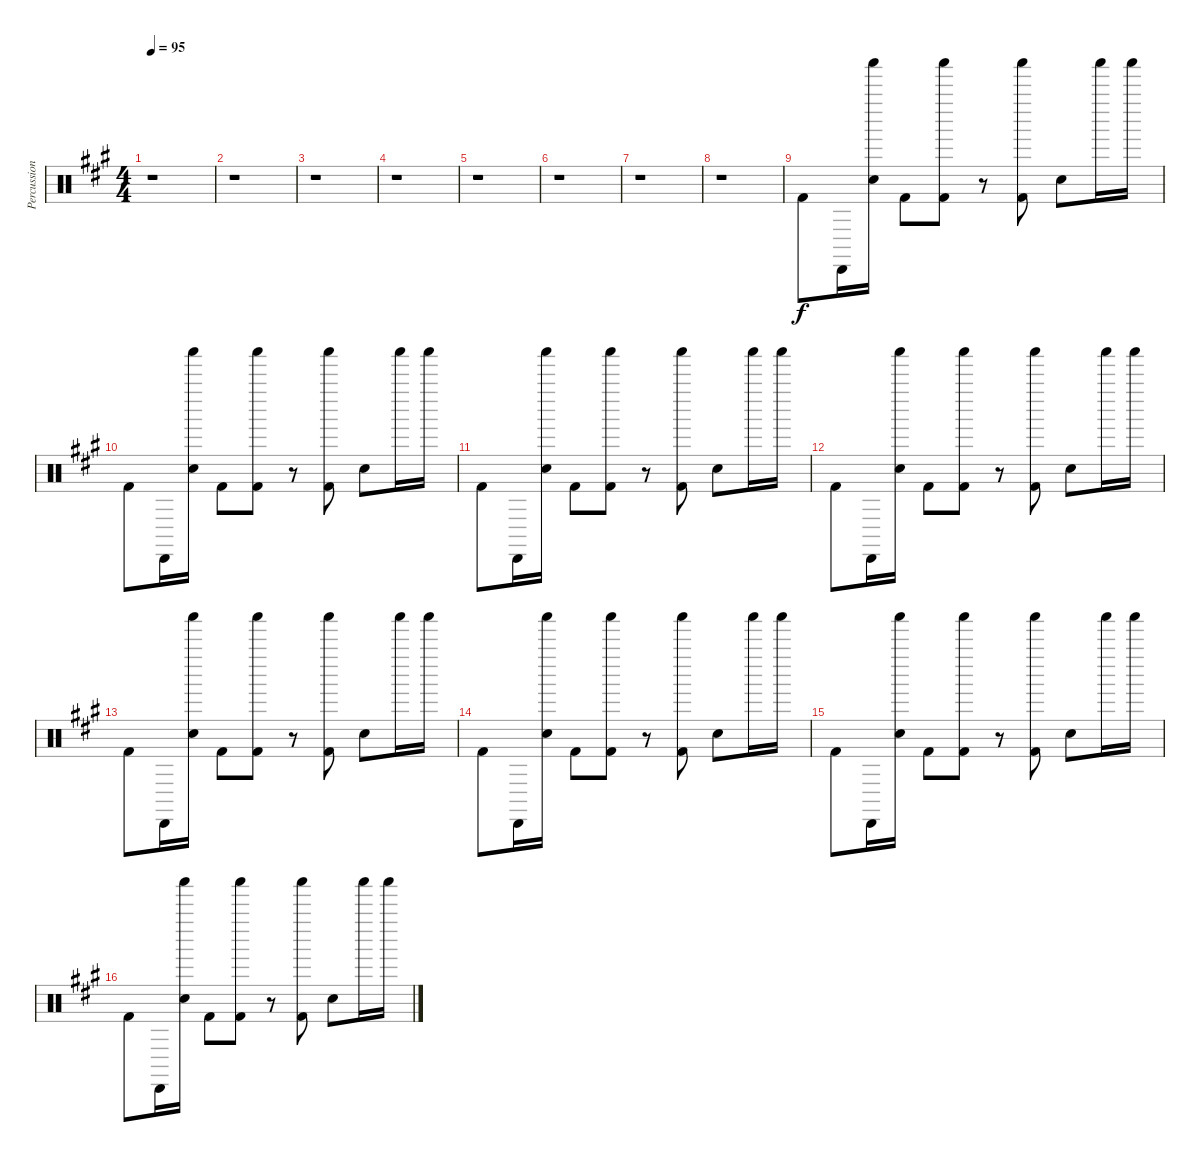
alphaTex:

\track ("Percussions" "Percussion") {instrument percussion}
\staff {score}
\articulation defaults
\ts (4 4)
\tempo 95
\clef neutral
\ks a
r.1{dy f} |
r.1 |
r.1 |
r.1 |
r.1 |
r.1 |
r.1 |
r.1 |
"Kick (hit) 2".8 "Cabasa (hit)".16 ("Hand Clap (hit)" "Shaker (hit)").16 "Kick (hit) 2".8 ("Kick (hit) 2" "Shaker (hit)").8 r.8 ("Kick (hit) 2" "Shaker (hit)").8 "Hand Clap (hit)".8 "Shaker (hit)".16 "Shaker (hit)".16 |
"Kick (hit) 2".8 "Cabasa (hit)".16 ("Hand Clap (hit)" "Shaker (hit)").16 "Kick (hit) 2".8 ("Kick (hit) 2" "Shaker (hit)").8 r.8 ("Kick (hit) 2" "Shaker (hit)").8 "Hand Clap (hit)".8 "Shaker (hit)".16 "Shaker (hit)".16 |
"Kick (hit) 2".8 "Cabasa (hit)".16 ("Hand Clap (hit)" "Shaker (hit)").16 "Kick (hit) 2".8 ("Kick (hit) 2" "Shaker (hit)").8 r.8 ("Kick (hit) 2" "Shaker (hit)").8 "Hand Clap (hit)".8 "Shaker (hit)".16 "Shaker (hit)".16 |
"Kick (hit) 2".8 "Cabasa (hit)".16 ("Hand Clap (hit)" "Shaker (hit)").16 "Kick (hit) 2".8 ("Kick (hit) 2" "Shaker (hit)").8 r.8 ("Kick (hit) 2" "Shaker (hit)").8 "Hand Clap (hit)".8 "Shaker (hit)".16 "Shaker (hit)".16 |
"Kick (hit) 2".8 "Cabasa (hit)".16 ("Hand Clap (hit)" "Shaker (hit)").16 "Kick (hit) 2".8 ("Kick (hit) 2" "Shaker (hit)").8 r.8 ("Kick (hit) 2" "Shaker (hit)").8 "Hand Clap (hit)".8 "Shaker (hit)".16 "Shaker (hit)".16 |
"Kick (hit) 2".8 "Cabasa (hit)".16 ("Hand Clap (hit)" "Shaker (hit)").16 "Kick (hit) 2".8 ("Kick (hit) 2" "Shaker (hit)").8 r.8 ("Kick (hit) 2" "Shaker (hit)").8 "Hand Clap (hit)".8 "Shaker (hit)".16 "Shaker (hit)".16 |
"Kick (hit) 2".8 "Cabasa (hit)".16 ("Hand Clap (hit)" "Shaker (hit)").16 "Kick (hit) 2".8 ("Kick (hit) 2" "Shaker (hit)").8 r.8 ("Kick (hit) 2" "Shaker (hit)").8 "Hand Clap (hit)".8 "Shaker (hit)".16 "Shaker (hit)".16 |
"Kick (hit) 2".8 "Cabasa (hit)".16 ("Hand Clap (hit)" "Shaker (hit)").16 "Kick (hit) 2".8 ("Kick (hit) 2" "Shaker (hit)").8 r.8 ("Kick (hit) 2" "Shaker (hit)").8 "Hand Clap (hit)".8 "Shaker (hit)".16 "Shaker (hit)".16
